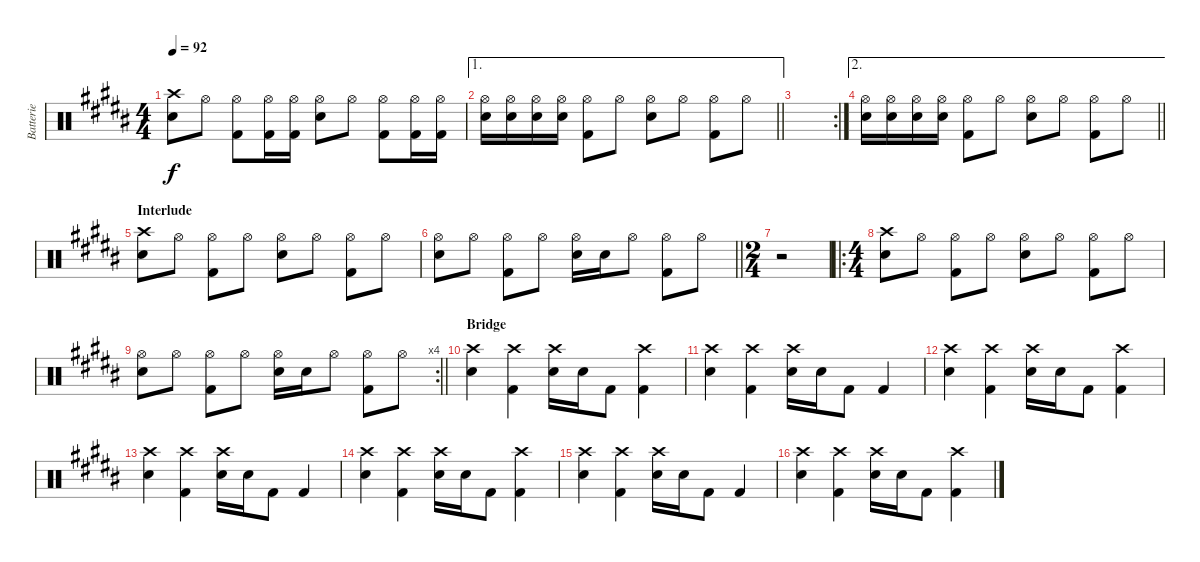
\track ("Batterie" "Batterie") {instrument percussion}
\staff {score}
\articulation defaults
\ts (4 4)
\tempo 92
\clef neutral
\ks b
("Crash high (hit)" "Snare (hit) 2").8{dy f} "Hi-Hat (open)".8 ("Hi-Hat (open)" "Kick (hit) 2").8 ("Hi-Hat (open)" "Kick (hit) 2").16 ("Hi-Hat (open)" "Kick (hit) 2").16 ("Hi-Hat (open)" "Snare (hit) 2").8 "Hi-Hat (open)".8 ("Hi-Hat (open)" "Kick (hit) 2").8 ("Hi-Hat (open)" "Kick (hit) 2").16 ("Hi-Hat (open)" "Kick (hit) 2").16 |
\ae 1
\barLineRight lightlight
("Hi-Hat (open)" "Snare (hit) 2").16 ("Hi-Hat (open)" "Snare (hit) 2").16 ("Hi-Hat (open)" "Snare (hit) 2").16 ("Hi-Hat (open)" "Snare (hit) 2").16 ("Hi-Hat (open)" "Kick (hit) 2").8 "Hi-Hat (open)".8 ("Hi-Hat (open)" "Snare (hit) 2").8 "Hi-Hat (open)".8 ("Hi-Hat (open)" "Kick (hit) 2").8 "Hi-Hat (open)".8 |
\rc 2
|
\ae 2
\barLineRight lightlight
("Hi-Hat (open)" "Snare (hit) 2").16 ("Hi-Hat (open)" "Snare (hit) 2").16 ("Hi-Hat (open)" "Snare (hit) 2").16 ("Hi-Hat (open)" "Snare (hit) 2").16 ("Hi-Hat (open)" "Kick (hit) 2").8 "Hi-Hat (open)".8 ("Hi-Hat (open)" "Snare (hit) 2").8 "Hi-Hat (open)".8 ("Hi-Hat (open)" "Kick (hit) 2").8 "Hi-Hat (open)".8 |
\section ("" "Interlude")
("Crash high (hit)" "Snare (hit) 2").8 "Hi-Hat (open)".8 ("Hi-Hat (open)" "Kick (hit) 2").8 "Hi-Hat (open)".8 ("Hi-Hat (open)" "Snare (hit) 2").8 "Hi-Hat (open)".8 ("Hi-Hat (open)" "Kick (hit) 2").8 "Hi-Hat (open)".8 |
\barLineRight lightlight
("Hi-Hat (open)" "Snare (hit) 2").8 "Hi-Hat (open)".8 ("Hi-Hat (open)" "Kick (hit) 2").8 "Hi-Hat (open)".8 ("Hi-Hat (open)" "Snare (hit) 2").16 "Snare (hit) 2".16 "Hi-Hat (open)".8 ("Hi-Hat (open)" "Kick (hit) 2").8 "Hi-Hat (open)".8 |
\ts (2 4)
r.2 |
\ro
\ts (4 4)
("Crash high (hit)" "Snare (hit) 2").8 "Hi-Hat (open)".8 ("Hi-Hat (open)" "Kick (hit) 2").8 "Hi-Hat (open)".8 ("Hi-Hat (open)" "Snare (hit) 2").8 "Hi-Hat (open)".8 ("Hi-Hat (open)" "Kick (hit) 2").8 "Hi-Hat (open)".8 |
\rc 4
\barLineRight lightlight
("Hi-Hat (open)" "Snare (hit) 2").8 "Hi-Hat (open)".8 ("Hi-Hat (open)" "Kick (hit) 2").8 "Hi-Hat (open)".8 ("Hi-Hat (open)" "Snare (hit) 2").16 "Snare (hit) 2".16 "Hi-Hat (open)".8 ("Hi-Hat (open)" "Kick (hit) 2").8 "Hi-Hat (open)".8 |
\section ("" "Bridge")
("Crash high (hit)" "Snare (hit) 2").4 ("Crash high (hit)" "Kick (hit) 2").4 ("Crash high (hit)" "Snare (hit) 2").16 "Snare (hit) 2".16 "Kick (hit) 2".8 ("Crash high (hit)" "Kick (hit) 2").4 |
("Crash high (hit)" "Snare (hit) 2").4 ("Crash high (hit)" "Kick (hit) 2").4 ("Crash high (hit)" "Snare (hit) 2").16 "Snare (hit) 2".16 "Kick (hit) 2".8 "Kick (hit) 2".4 |
("Crash high (hit)" "Snare (hit) 2").4 ("Crash high (hit)" "Kick (hit) 2").4 ("Crash high (hit)" "Snare (hit) 2").16 "Snare (hit) 2".16 "Kick (hit) 2".8 ("Crash high (hit)" "Kick (hit) 2").4 |
("Crash high (hit)" "Snare (hit) 2").4 ("Crash high (hit)" "Kick (hit) 2").4 ("Crash high (hit)" "Snare (hit) 2").16 "Snare (hit) 2".16 "Kick (hit) 2".8 "Kick (hit) 2".4 |
("Crash high (hit)" "Snare (hit) 2").4 ("Crash high (hit)" "Kick (hit) 2").4 ("Crash high (hit)" "Snare (hit) 2").16 "Snare (hit) 2".16 "Kick (hit) 2".8 ("Crash high (hit)" "Kick (hit) 2").4 |
("Crash high (hit)" "Snare (hit) 2").4 ("Crash high (hit)" "Kick (hit) 2").4 ("Crash high (hit)" "Snare (hit) 2").16 "Snare (hit) 2".16 "Kick (hit) 2".8 "Kick (hit) 2".4 |
("Crash high (hit)" "Snare (hit) 2").4 ("Crash high (hit)" "Kick (hit) 2").4 ("Crash high (hit)" "Snare (hit) 2").16 "Snare (hit) 2".16 "Kick (hit) 2".8 ("Crash high (hit)" "Kick (hit) 2").4
